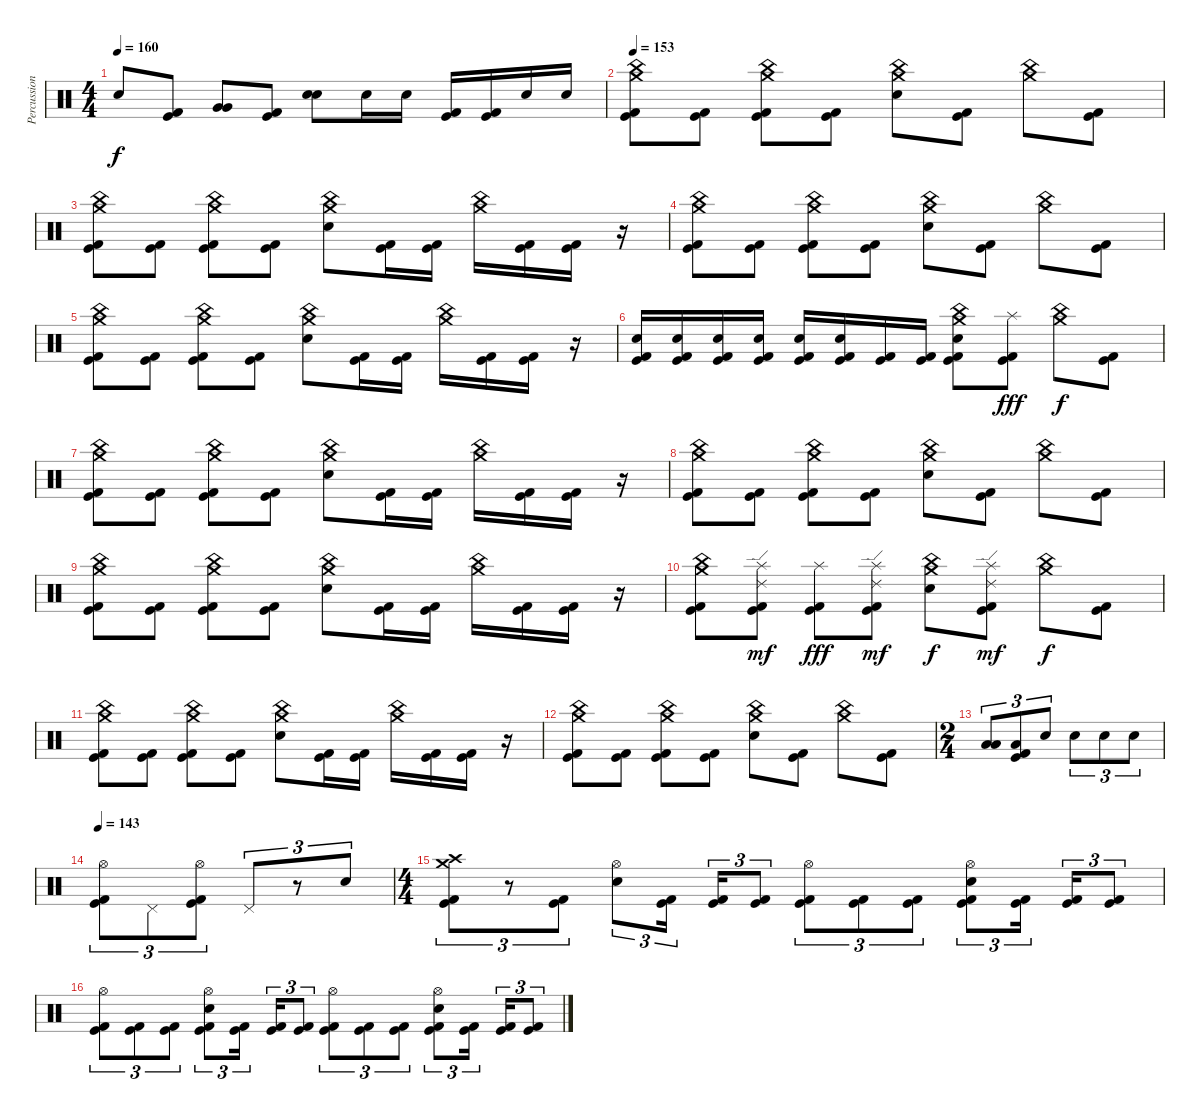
\track ("Percussion" "Percussion") {instrument percussion}
\staff {score}
\articulation defaults
\ts (4 4)
\tempo 160
\clef neutral
\ks c "Electric Snare (hit)".8{dy f}
("Kick (hit)" "Kick (hit) 2").8 ("Very Low Tom (hit)" "Very Low Tom (hit)").8{bu 480} ("Kick (hit)" "Kick (hit) 2").8 ("Electric Snare (hit)" "Electric Snare (hit)").8{bu 480} "Electric Snare (hit)".16 "Electric Snare (hit)".16 ("Kick (hit)" "Kick (hit) 2").16 ("Kick (hit)" "Kick (hit) 2").16 "Electric Snare (hit)".16 "Electric Snare (hit)".16 |
\tempo 153
("Crash medium (hit)" "China (hit)" "Kick (hit)" "Kick (hit) 2").8 ("Kick (hit)" "Kick (hit) 2").8 ("Crash medium (hit)" "China (hit)" "Kick (hit)" "Kick (hit) 2").8 ("Kick (hit)" "Kick (hit) 2").8 ("Crash medium (hit)" "China (hit)" "Electric Snare (hit)").8 ("Kick (hit)" "Kick (hit) 2").8 ("Crash medium (hit)" "China (hit)").8 ("Kick (hit)" "Kick (hit) 2").8 |
("Crash medium (hit)" "China (hit)" "Kick (hit)" "Kick (hit) 2").8 ("Kick (hit)" "Kick (hit) 2").8 ("Crash medium (hit)" "China (hit)" "Kick (hit)" "Kick (hit) 2").8 ("Kick (hit)" "Kick (hit) 2").8 ("Crash medium (hit)" "China (hit)" "Electric Snare (hit)").8 ("Kick (hit)" "Kick (hit) 2").16 ("Kick (hit)" "Kick (hit) 2").16 ("Crash medium (hit)" "China (hit)").16 ("Kick (hit)" "Kick (hit) 2").16 ("Kick (hit)" "Kick (hit) 2").16 r.16 |
("Crash medium (hit)" "China (hit)" "Kick (hit)" "Kick (hit) 2").8 ("Kick (hit)" "Kick (hit) 2").8 ("Crash medium (hit)" "China (hit)" "Kick (hit)" "Kick (hit) 2").8 ("Kick (hit)" "Kick (hit) 2").8 ("Crash medium (hit)" "China (hit)" "Electric Snare (hit)").8 ("Kick (hit)" "Kick (hit) 2").8 ("Crash medium (hit)" "China (hit)").8 ("Kick (hit)" "Kick (hit) 2").8 |
("Crash medium (hit)" "China (hit)" "Kick (hit)" "Kick (hit) 2").8 ("Kick (hit)" "Kick (hit) 2").8 ("Crash medium (hit)" "China (hit)" "Kick (hit)" "Kick (hit) 2").8 ("Kick (hit)" "Kick (hit) 2").8 ("Crash medium (hit)" "China (hit)" "Electric Snare (hit)").8 ("Kick (hit)" "Kick (hit) 2").16 ("Kick (hit)" "Kick (hit) 2").16 ("Crash medium (hit)" "China (hit)").16 ("Kick (hit)" "Kick (hit) 2").16 ("Kick (hit)" "Kick (hit) 2").16 r.16 |
("Electric Snare (hit)" "Kick (hit)" "Kick (hit) 2").16 ("Electric Snare (hit)" "Kick (hit)" "Kick (hit) 2").16 ("Electric Snare (hit)" "Kick (hit)" "Kick (hit) 2").16 ("Electric Snare (hit)" "Kick (hit)" "Kick (hit) 2").16 ("Electric Snare (hit)" "Kick (hit)" "Kick (hit) 2").16 ("Electric Snare (hit)" "Kick (hit)" "Kick (hit) 2").16 ("Kick (hit)" "Kick (hit) 2").16 ("Kick (hit)" "Kick (hit) 2").16 ("Crash medium (hit)" "China (hit)" "Electric Snare (hit)" "Kick (hit)" "Kick (hit) 2").8 ("Splash (hit)" "Kick (hit)" "Kick (hit) 2").8{dy fff} ("Crash medium (hit)" "China (hit)").8{dy f} ("Kick (hit)" "Kick (hit) 2").8 |
("Crash medium (hit)" "China (hit)" "Kick (hit)" "Kick (hit) 2").8 ("Kick (hit)" "Kick (hit) 2").8 ("Crash medium (hit)" "China (hit)" "Kick (hit)" "Kick (hit) 2").8 ("Kick (hit)" "Kick (hit) 2").8 ("Crash medium (hit)" "China (hit)" "Electric Snare (hit)").8 ("Kick (hit)" "Kick (hit) 2").16 ("Kick (hit)" "Kick (hit) 2").16 ("Crash medium (hit)" "China (hit)").16 ("Kick (hit)" "Kick (hit) 2").16 ("Kick (hit)" "Kick (hit) 2").16 r.16 |
("Crash medium (hit)" "China (hit)" "Kick (hit)" "Kick (hit) 2").8 ("Kick (hit)" "Kick (hit) 2").8 ("Crash medium (hit)" "China (hit)" "Kick (hit)" "Kick (hit) 2").8 ("Kick (hit)" "Kick (hit) 2").8 ("Crash medium (hit)" "China (hit)" "Electric Snare (hit)").8 ("Kick (hit)" "Kick (hit) 2").8 ("Crash medium (hit)" "China (hit)").8 ("Kick (hit)" "Kick (hit) 2").8 |
("Crash medium (hit)" "China (hit)" "Kick (hit)" "Kick (hit) 2").8 ("Kick (hit)" "Kick (hit) 2").8 ("Crash medium (hit)" "China (hit)" "Kick (hit)" "Kick (hit) 2").8 ("Kick (hit)" "Kick (hit) 2").8 ("Crash medium (hit)" "China (hit)" "Electric Snare (hit)").8 ("Kick (hit)" "Kick (hit) 2").16 ("Kick (hit)" "Kick (hit) 2").16 ("Crash medium (hit)" "China (hit)").16 ("Kick (hit)" "Kick (hit) 2").16 ("Kick (hit)" "Kick (hit) 2").16 r.16 |
("Crash medium (hit)" "China (hit)" "Kick (hit)" "Kick (hit) 2").8 ("Ride (edge) 2" "Splash (hit)" "Kick (hit)" "Kick (hit) 2").8{dy mf} ("Splash (hit)" "Kick (hit)" "Kick (hit) 2").8{dy fff} ("Ride (edge) 2" "Splash (hit)" "Kick (hit)" "Kick (hit) 2").8{dy mf} ("Crash medium (hit)" "China (hit)" "Electric Snare (hit)").8{dy f} ("Ride (edge) 2" "Splash (hit)" "Kick (hit)" "Kick (hit) 2").8{dy mf} ("Crash medium (hit)" "China (hit)").8{dy f} ("Kick (hit)" "Kick (hit) 2").8 |
("Crash medium (hit)" "China (hit)" "Kick (hit)" "Kick (hit) 2").8 ("Kick (hit)" "Kick (hit) 2").8 ("Crash medium (hit)" "China (hit)" "Kick (hit)" "Kick (hit) 2").8 ("Kick (hit)" "Kick (hit) 2").8 ("Crash medium (hit)" "China (hit)" "Electric Snare (hit)").8 ("Kick (hit)" "Kick (hit) 2").16 ("Kick (hit)" "Kick (hit) 2").16 ("Crash medium (hit)" "China (hit)").16 ("Kick (hit)" "Kick (hit) 2").16 ("Kick (hit)" "Kick (hit) 2").16 r.16 |
("Crash medium (hit)" "China (hit)" "Kick (hit)" "Kick (hit) 2").8 ("Kick (hit)" "Kick (hit) 2").8 ("Crash medium (hit)" "China (hit)" "Kick (hit)" "Kick (hit) 2").8 ("Kick (hit)" "Kick (hit) 2").8 ("Crash medium (hit)" "China (hit)" "Electric Snare (hit)").8 ("Kick (hit)" "Kick (hit) 2").8 ("Crash medium (hit)" "China (hit)").8 ("Kick (hit)" "Kick (hit) 2").8 |
\ts (2 4)
("Low Tom (hit)" "Low Tom (hit)").8{tu (3 2) bu 480} ("Low Floor Tom (hit)" "Kick (hit)" "Kick (hit) 2").8{tu (3 2)} "Electric Snare (hit)".8{tu (3 2)} "Electric Snare (hit)".8{tu (3 2)} "Electric Snare (hit)".8{tu (3 2)} "Electric Snare (hit)".8{tu (3 2)} |
\tempo 143
("Hi-Hat (open)" "Kick (hit)" "Kick (hit) 2").8{tu (3 2)} "Pedal Hi-Hat (hit)".8{tu (3 2)} ("Hi-Hat (open)" "Kick (hit)" "Kick (hit) 2").8{tu (3 2)} "Pedal Hi-Hat (hit)".8{tu (3 2)} r.8{tu (3 2)} "Electric Snare (hit)".8{tu (3 2)} |
\ts (4 4)
("Crash medium (hit)" "Crash high (hit)" "Kick (hit)" "Kick (hit) 2").8{tu (3 2)} r.8{tu (3 2)} ("Kick (hit)" "Kick (hit) 2").8{tu (3 2)} ("Hi-Hat (open)" "Electric Snare (hit)").8{tu (3 2)} ("Kick (hit)" "Kick (hit) 2").16{tu (3 2) beam splitsecondary} ("Kick (hit)" "Kick (hit) 2").16{tu (3 2)} ("Kick (hit)" "Kick (hit) 2").8{tu (3 2)} ("Hi-Hat (open)" "Kick (hit)" "Kick (hit) 2").8{tu (3 2)} ("Kick (hit)" "Kick (hit) 2").8{tu (3 2)} ("Kick (hit)" "Kick (hit) 2").8{tu (3 2)} ("Hi-Hat (open)" "Electric Snare (hit)" "Kick (hit)" "Kick (hit) 2").8{tu (3 2)} ("Kick (hit)" "Kick (hit) 2").16{tu (3 2) beam splitsecondary} ("Kick (hit)" "Kick (hit) 2").16{tu (3 2)} ("Kick (hit)" "Kick (hit) 2").8{tu (3 2)} |
("Hi-Hat (open)" "Kick (hit)" "Kick (hit) 2").8{tu (3 2)} ("Kick (hit)" "Kick (hit) 2").8{tu (3 2)} ("Kick (hit)" "Kick (hit) 2").8{tu (3 2)} ("Hi-Hat (open)" "Electric Snare (hit)" "Kick (hit)" "Kick (hit) 2").8{tu (3 2)} ("Kick (hit)" "Kick (hit) 2").16{tu (3 2) beam splitsecondary} ("Kick (hit)" "Kick (hit) 2").16{tu (3 2)} ("Kick (hit)" "Kick (hit) 2").8{tu (3 2)} ("Hi-Hat (open)" "Kick (hit)" "Kick (hit) 2").8{tu (3 2)} ("Kick (hit)" "Kick (hit) 2").8{tu (3 2)} ("Kick (hit)" "Kick (hit) 2").8{tu (3 2)} ("Hi-Hat (open)" "Electric Snare (hit)" "Kick (hit)" "Kick (hit) 2").8{tu (3 2)} ("Kick (hit)" "Kick (hit) 2").16{tu (3 2) beam splitsecondary} ("Kick (hit)" "Kick (hit) 2").16{tu (3 2)} ("Kick (hit)" "Kick (hit) 2").8{tu (3 2)}
